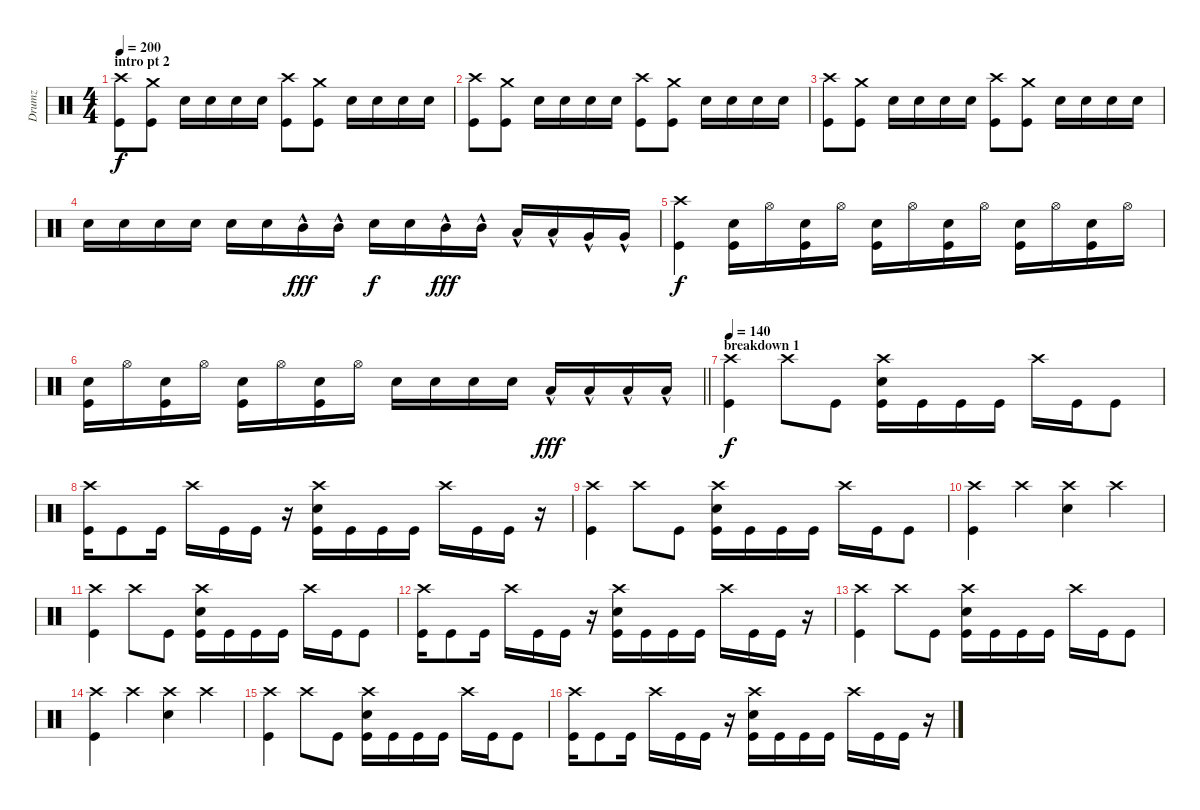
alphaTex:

\track ("Drumz" "Drumz") {instrument percussion}
\staff {score}
\articulation defaults
\ts (4 4)
\section ("" "intro pt 2")
\tempo 200
\clef neutral
\ks c
("Crash high (hit)" "Kick (hit)").8{dy f} ("Crash medium (hit)" "Kick (hit)").8 "Electric Snare (hit)".16 "Electric Snare (hit)".16 "Electric Snare (hit)".16 "Electric Snare (hit)".16 ("Crash high (hit)" "Kick (hit)").8 ("Crash medium (hit)" "Kick (hit)").8 "Electric Snare (hit)".16 "Electric Snare (hit)".16 "Electric Snare (hit)".16 "Electric Snare (hit)".16 |
("Crash high (hit)" "Kick (hit)").8 ("Crash medium (hit)" "Kick (hit)").8 "Electric Snare (hit)".16 "Electric Snare (hit)".16 "Electric Snare (hit)".16 "Electric Snare (hit)".16 ("Crash high (hit)" "Kick (hit)").8 ("Crash medium (hit)" "Kick (hit)").8 "Electric Snare (hit)".16 "Electric Snare (hit)".16 "Electric Snare (hit)".16 "Electric Snare (hit)".16 |
("Crash high (hit)" "Kick (hit)").8 ("Crash medium (hit)" "Kick (hit)").8 "Electric Snare (hit)".16 "Electric Snare (hit)".16 "Electric Snare (hit)".16 "Electric Snare (hit)".16 ("Crash high (hit)" "Kick (hit)").8 ("Crash medium (hit)" "Kick (hit)").8 "Electric Snare (hit)".16 "Electric Snare (hit)".16 "Electric Snare (hit)".16 "Electric Snare (hit)".16 |
"Electric Snare (hit)".16 "Electric Snare (hit)".16 "Electric Snare (hit)".16 "Electric Snare (hit)".16 "Electric Snare (hit)".16 "Electric Snare (hit)".16 "Mid Tom (hit)"{hac}.16{dy fff} "Mid Tom (hit)"{hac}.16 "Electric Snare (hit)".16{dy f} "Electric Snare (hit)".16 "Mid Tom (hit)"{hac}.16{dy fff} "Mid Tom (hit)"{hac}.16 "Low Tom (hit)"{hac}.16 "Low Tom (hit)"{hac}.16 "Very Low Tom (hit)"{hac}.16 "Very Low Tom (hit)"{hac}.16 |
("Crash high (hit)" "Kick (hit)").4{dy f} ("Electric Snare (hit)" "Kick (hit)").16 "Hi-Hat (open)".16 ("Electric Snare (hit)" "Kick (hit)").16 "Hi-Hat (open)".16 ("Electric Snare (hit)" "Kick (hit)").16 "Hi-Hat (open)".16 ("Electric Snare (hit)" "Kick (hit)").16 "Hi-Hat (open)".16 ("Electric Snare (hit)" "Kick (hit)").16 "Hi-Hat (open)".16 ("Electric Snare (hit)" "Kick (hit)").16 "Hi-Hat (open)".16 |
\barLineRight lightlight
("Electric Snare (hit)" "Kick (hit)").16 "Hi-Hat (open)".16 ("Electric Snare (hit)" "Kick (hit)").16 "Hi-Hat (open)".16 ("Electric Snare (hit)" "Kick (hit)").16 "Hi-Hat (open)".16 ("Electric Snare (hit)" "Kick (hit)").16 "Hi-Hat (open)".16 "Electric Snare (hit)".16 "Electric Snare (hit)".16 "Electric Snare (hit)".16 "Electric Snare (hit)".16 "Low Tom (hit)"{hac}.16{dy fff} "Low Tom (hit)"{hac}.16 "Low Tom (hit)"{hac}.16 "Low Tom (hit)"{hac}.16 |
\section ("" "breakdown 1")
\tempo 140
("Crash high (hit)" "Kick (hit)").4{dy f} "Crash high (hit)".8 "Kick (hit)".8 ("Crash high (hit)" "Electric Snare (hit)" "Kick (hit)").16 "Kick (hit)".16 "Kick (hit)".16 "Kick (hit)".16 "Crash high (hit)".16 "Kick (hit)".16 "Kick (hit)".8 |
("Crash high (hit)" "Kick (hit)").16 "Kick (hit)".8 "Kick (hit)".16 "Crash high (hit)".16 "Kick (hit)".16 "Kick (hit)".16 r.16 ("Crash high (hit)" "Electric Snare (hit)" "Kick (hit)").16 "Kick (hit)".16 "Kick (hit)".16 "Kick (hit)".16 "Crash high (hit)".16 "Kick (hit)".16 "Kick (hit)".16 r.16 |
("Crash high (hit)" "Kick (hit)").4 "Crash high (hit)".8 "Kick (hit)".8 ("Crash high (hit)" "Electric Snare (hit)" "Kick (hit)").16 "Kick (hit)".16 "Kick (hit)".16 "Kick (hit)".16 "Crash high (hit)".16 "Kick (hit)".16 "Kick (hit)".8 |
("Crash high (hit)" "Kick (hit)").4 "Crash high (hit)".4 ("Crash high (hit)" "Electric Snare (hit)").4 "Crash high (hit)".4 |
("Crash high (hit)" "Kick (hit)").4 "Crash high (hit)".8 "Kick (hit)".8 ("Crash high (hit)" "Electric Snare (hit)" "Kick (hit)").16 "Kick (hit)".16 "Kick (hit)".16 "Kick (hit)".16 "Crash high (hit)".16 "Kick (hit)".16 "Kick (hit)".8 |
("Crash high (hit)" "Kick (hit)").16 "Kick (hit)".8 "Kick (hit)".16 "Crash high (hit)".16 "Kick (hit)".16 "Kick (hit)".16 r.16 ("Crash high (hit)" "Electric Snare (hit)" "Kick (hit)").16 "Kick (hit)".16 "Kick (hit)".16 "Kick (hit)".16 "Crash high (hit)".16 "Kick (hit)".16 "Kick (hit)".16 r.16 |
("Crash high (hit)" "Kick (hit)").4 "Crash high (hit)".8 "Kick (hit)".8 ("Crash high (hit)" "Electric Snare (hit)" "Kick (hit)").16 "Kick (hit)".16 "Kick (hit)".16 "Kick (hit)".16 "Crash high (hit)".16 "Kick (hit)".16 "Kick (hit)".8 |
("Crash high (hit)" "Kick (hit)").4 "Crash high (hit)".4 ("Crash high (hit)" "Electric Snare (hit)").4 "Crash high (hit)".4 |
("Crash high (hit)" "Kick (hit)").4 "Crash high (hit)".8 "Kick (hit)".8 ("Crash high (hit)" "Electric Snare (hit)" "Kick (hit)").16 "Kick (hit)".16 "Kick (hit)".16 "Kick (hit)".16 "Crash high (hit)".16 "Kick (hit)".16 "Kick (hit)".8 |
("Crash high (hit)" "Kick (hit)").16 "Kick (hit)".8 "Kick (hit)".16 "Crash high (hit)".16 "Kick (hit)".16 "Kick (hit)".16 r.16 ("Crash high (hit)" "Electric Snare (hit)" "Kick (hit)").16 "Kick (hit)".16 "Kick (hit)".16 "Kick (hit)".16 "Crash high (hit)".16 "Kick (hit)".16 "Kick (hit)".16 r.16
